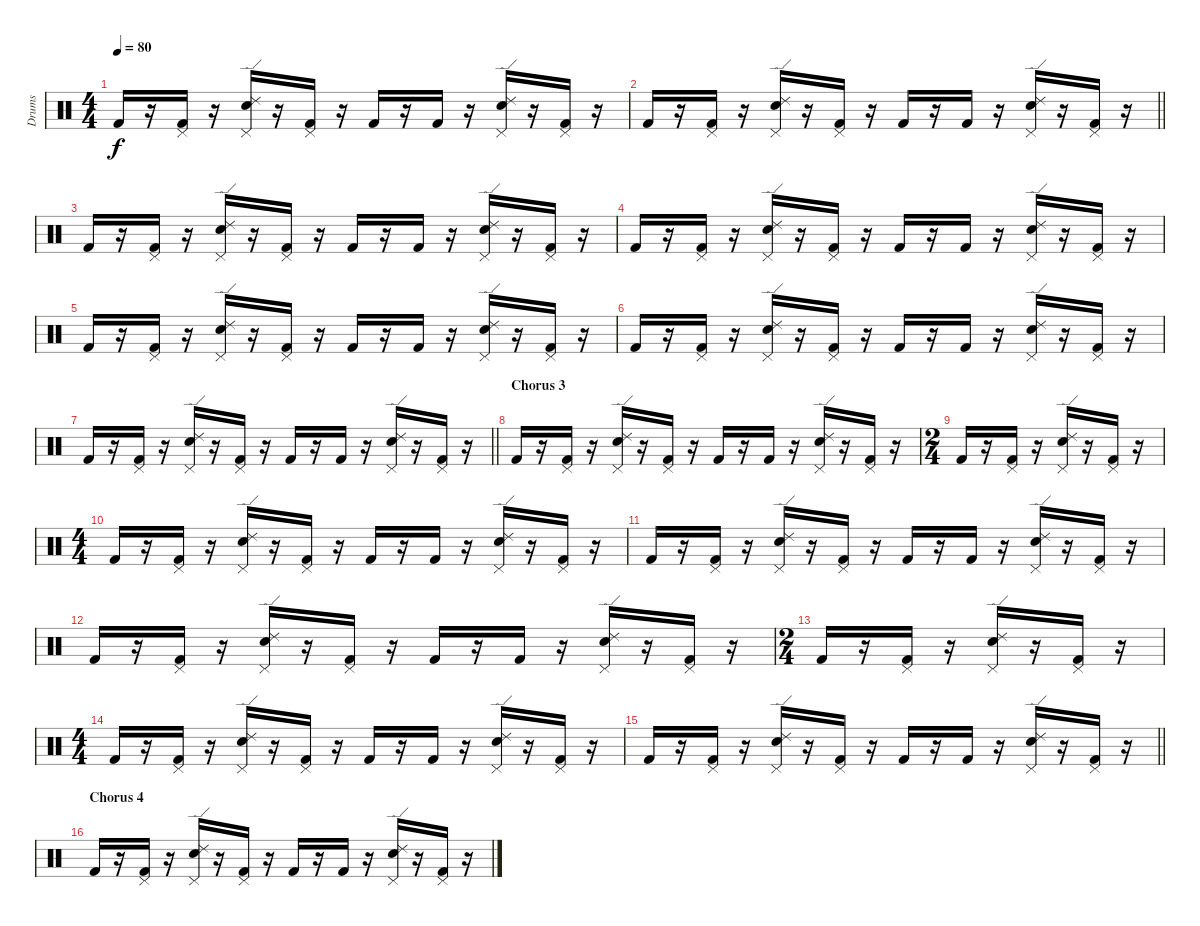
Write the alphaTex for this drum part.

\track ("Drums" "Drums") {instrument percussion}
\staff {score}
\articulation defaults
\ts (4 4)
\tempo 80
\clef neutral
\ks c "Kick (hit) 2".16{dy f}
r.16 ("Pedal Hi-Hat (hit)" "Kick (hit) 2").16 r.16 ("Ride (edge) 2" "Pedal Hi-Hat (hit)" "Snare (hit) 2").16 r.16 ("Pedal Hi-Hat (hit)" "Kick (hit) 2").16 r.16 "Kick (hit) 2".16 r.16 "Kick (hit) 2".16 r.16 ("Ride (edge) 2" "Pedal Hi-Hat (hit)" "Snare (hit) 2").16 r.16 ("Pedal Hi-Hat (hit)" "Kick (hit) 2").16 r.16 |
\barLineRight lightlight "Kick (hit) 2".16
r.16 ("Pedal Hi-Hat (hit)" "Kick (hit) 2").16 r.16 ("Ride (edge) 2" "Pedal Hi-Hat (hit)" "Snare (hit) 2").16 r.16 ("Pedal Hi-Hat (hit)" "Kick (hit) 2").16 r.16 "Kick (hit) 2".16 r.16 "Kick (hit) 2".16 r.16 ("Ride (edge) 2" "Pedal Hi-Hat (hit)" "Snare (hit) 2").16 r.16 ("Pedal Hi-Hat (hit)" "Kick (hit) 2").16 r.16 |
"Kick (hit) 2".16 r.16 ("Pedal Hi-Hat (hit)" "Kick (hit) 2").16 r.16 ("Ride (edge) 2" "Pedal Hi-Hat (hit)" "Snare (hit) 2").16 r.16 ("Pedal Hi-Hat (hit)" "Kick (hit) 2").16 r.16 "Kick (hit) 2".16 r.16 "Kick (hit) 2".16 r.16 ("Ride (edge) 2" "Pedal Hi-Hat (hit)" "Snare (hit) 2").16 r.16 ("Pedal Hi-Hat (hit)" "Kick (hit) 2").16 r.16 |
"Kick (hit) 2".16 r.16 ("Pedal Hi-Hat (hit)" "Kick (hit) 2").16 r.16 ("Ride (edge) 2" "Pedal Hi-Hat (hit)" "Snare (hit) 2").16 r.16 ("Pedal Hi-Hat (hit)" "Kick (hit) 2").16 r.16 "Kick (hit) 2".16 r.16 "Kick (hit) 2".16 r.16 ("Ride (edge) 2" "Pedal Hi-Hat (hit)" "Snare (hit) 2").16 r.16 ("Pedal Hi-Hat (hit)" "Kick (hit) 2").16 r.16 |
"Kick (hit) 2".16 r.16 ("Pedal Hi-Hat (hit)" "Kick (hit) 2").16 r.16 ("Ride (edge) 2" "Pedal Hi-Hat (hit)" "Snare (hit) 2").16 r.16 ("Pedal Hi-Hat (hit)" "Kick (hit) 2").16 r.16 "Kick (hit) 2".16 r.16 "Kick (hit) 2".16 r.16 ("Ride (edge) 2" "Pedal Hi-Hat (hit)" "Snare (hit) 2").16 r.16 ("Pedal Hi-Hat (hit)" "Kick (hit) 2").16 r.16 |
"Kick (hit) 2".16 r.16 ("Pedal Hi-Hat (hit)" "Kick (hit) 2").16 r.16 ("Ride (edge) 2" "Pedal Hi-Hat (hit)" "Snare (hit) 2").16 r.16 ("Pedal Hi-Hat (hit)" "Kick (hit) 2").16 r.16 "Kick (hit) 2".16 r.16 "Kick (hit) 2".16 r.16 ("Ride (edge) 2" "Pedal Hi-Hat (hit)" "Snare (hit) 2").16 r.16 ("Pedal Hi-Hat (hit)" "Kick (hit) 2").16 r.16 |
\barLineRight lightlight "Kick (hit) 2".16
r.16 ("Pedal Hi-Hat (hit)" "Kick (hit) 2").16 r.16 ("Ride (edge) 2" "Pedal Hi-Hat (hit)" "Snare (hit) 2").16 r.16 ("Pedal Hi-Hat (hit)" "Kick (hit) 2").16 r.16 "Kick (hit) 2".16 r.16 "Kick (hit) 2".16 r.16 ("Ride (edge) 2" "Pedal Hi-Hat (hit)" "Snare (hit) 2").16 r.16 ("Pedal Hi-Hat (hit)" "Kick (hit) 2").16 r.16 |
\section ("" "Chorus 3")
"Kick (hit) 2".16 r.16 ("Pedal Hi-Hat (hit)" "Kick (hit) 2").16 r.16 ("Ride (edge) 2" "Pedal Hi-Hat (hit)" "Snare (hit) 2").16 r.16 ("Pedal Hi-Hat (hit)" "Kick (hit) 2").16 r.16 "Kick (hit) 2".16 r.16 "Kick (hit) 2".16 r.16 ("Ride (edge) 2" "Pedal Hi-Hat (hit)" "Snare (hit) 2").16 r.16 ("Pedal Hi-Hat (hit)" "Kick (hit) 2").16 r.16 |
\ts (2 4)
"Kick (hit) 2".16 r.16 ("Pedal Hi-Hat (hit)" "Kick (hit) 2").16 r.16 ("Ride (edge) 2" "Pedal Hi-Hat (hit)" "Snare (hit) 2").16 r.16 ("Pedal Hi-Hat (hit)" "Kick (hit) 2").16 r.16 |
\ts (4 4)
"Kick (hit) 2".16 r.16 ("Pedal Hi-Hat (hit)" "Kick (hit) 2").16 r.16 ("Ride (edge) 2" "Pedal Hi-Hat (hit)" "Snare (hit) 2").16 r.16 ("Pedal Hi-Hat (hit)" "Kick (hit) 2").16 r.16 "Kick (hit) 2".16 r.16 "Kick (hit) 2".16 r.16 ("Ride (edge) 2" "Pedal Hi-Hat (hit)" "Snare (hit) 2").16 r.16 ("Pedal Hi-Hat (hit)" "Kick (hit) 2").16 r.16 |
"Kick (hit) 2".16 r.16 ("Pedal Hi-Hat (hit)" "Kick (hit) 2").16 r.16 ("Ride (edge) 2" "Pedal Hi-Hat (hit)" "Snare (hit) 2").16 r.16 ("Pedal Hi-Hat (hit)" "Kick (hit) 2").16 r.16 "Kick (hit) 2".16 r.16 "Kick (hit) 2".16 r.16 ("Ride (edge) 2" "Pedal Hi-Hat (hit)" "Snare (hit) 2").16 r.16 ("Pedal Hi-Hat (hit)" "Kick (hit) 2").16 r.16 |
"Kick (hit) 2".16 r.16 ("Pedal Hi-Hat (hit)" "Kick (hit) 2").16 r.16 ("Ride (edge) 2" "Pedal Hi-Hat (hit)" "Snare (hit) 2").16 r.16 ("Pedal Hi-Hat (hit)" "Kick (hit) 2").16 r.16 "Kick (hit) 2".16 r.16 "Kick (hit) 2".16 r.16 ("Ride (edge) 2" "Pedal Hi-Hat (hit)" "Snare (hit) 2").16 r.16 ("Pedal Hi-Hat (hit)" "Kick (hit) 2").16 r.16 |
\ts (2 4)
"Kick (hit) 2".16 r.16 ("Pedal Hi-Hat (hit)" "Kick (hit) 2").16 r.16 ("Ride (edge) 2" "Pedal Hi-Hat (hit)" "Snare (hit) 2").16 r.16 ("Pedal Hi-Hat (hit)" "Kick (hit) 2").16 r.16 |
\ts (4 4)
"Kick (hit) 2".16 r.16 ("Pedal Hi-Hat (hit)" "Kick (hit) 2").16 r.16 ("Ride (edge) 2" "Pedal Hi-Hat (hit)" "Snare (hit) 2").16 r.16 ("Pedal Hi-Hat (hit)" "Kick (hit) 2").16 r.16 "Kick (hit) 2".16 r.16 "Kick (hit) 2".16 r.16 ("Ride (edge) 2" "Pedal Hi-Hat (hit)" "Snare (hit) 2").16 r.16 ("Pedal Hi-Hat (hit)" "Kick (hit) 2").16 r.16 |
\barLineRight lightlight "Kick (hit) 2".16
r.16 ("Pedal Hi-Hat (hit)" "Kick (hit) 2").16 r.16 ("Ride (edge) 2" "Pedal Hi-Hat (hit)" "Snare (hit) 2").16 r.16 ("Pedal Hi-Hat (hit)" "Kick (hit) 2").16 r.16 "Kick (hit) 2".16 r.16 "Kick (hit) 2".16 r.16 ("Ride (edge) 2" "Pedal Hi-Hat (hit)" "Snare (hit) 2").16 r.16 ("Pedal Hi-Hat (hit)" "Kick (hit) 2").16 r.16 |
\section ("" "Chorus 4")
"Kick (hit) 2".16 r.16 ("Pedal Hi-Hat (hit)" "Kick (hit) 2").16 r.16 ("Ride (edge) 2" "Pedal Hi-Hat (hit)" "Snare (hit) 2").16 r.16 ("Pedal Hi-Hat (hit)" "Kick (hit) 2").16 r.16 "Kick (hit) 2".16 r.16 "Kick (hit) 2".16 r.16 ("Ride (edge) 2" "Pedal Hi-Hat (hit)" "Snare (hit) 2").16 r.16 ("Pedal Hi-Hat (hit)" "Kick (hit) 2").16 r.16
